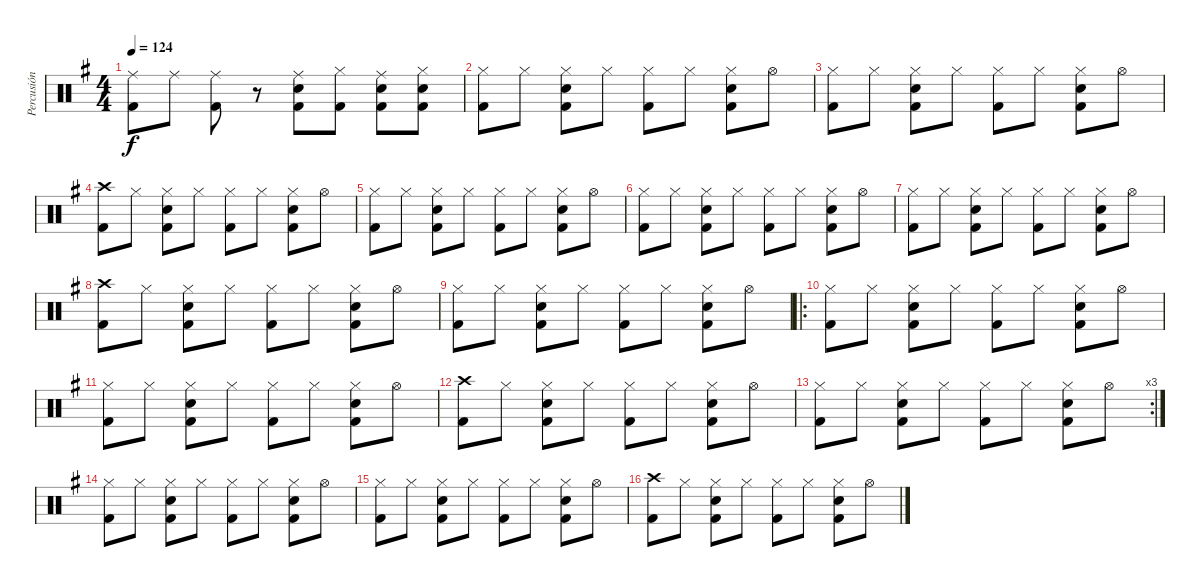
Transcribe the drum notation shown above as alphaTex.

\track ("Percusión" "Percusión") {instrument percussion}
\staff {score}
\articulation defaults
\ts (4 4)
\tempo 124
\clef neutral
\ks g
("Ride (middle)" "Kick (hit) 2").8{dy f} "Ride (middle)".8 ("Ride (middle)" "Kick (hit) 2").8 r.8 ("Ride (middle)" "Electric Snare (hit)" "Kick (hit) 2").8 ("Hi-Hat (closed)" "Kick (hit) 2").8 ("Ride (middle)" "Electric Snare (hit)" "Kick (hit) 2").8 ("Hi-Hat (closed)" "Electric Snare (hit)" "Kick (hit) 2").8 |
("Hi-Hat (closed)" "Kick (hit) 2").8 "Hi-Hat (closed)".8 ("Hi-Hat (closed)" "Electric Snare (hit)" "Kick (hit) 2").8 "Hi-Hat (closed)".8 ("Hi-Hat (closed)" "Kick (hit) 2").8 "Hi-Hat (closed)".8 ("Hi-Hat (closed)" "Electric Snare (hit)" "Kick (hit) 2").8 "Hi-Hat (open)".8 |
("Hi-Hat (closed)" "Kick (hit) 2").8 "Hi-Hat (closed)".8 ("Hi-Hat (closed)" "Electric Snare (hit)" "Kick (hit) 2").8 "Hi-Hat (closed)".8 ("Hi-Hat (closed)" "Kick (hit) 2").8 "Hi-Hat (closed)".8 ("Hi-Hat (closed)" "Electric Snare (hit)" "Kick (hit) 2").8 "Hi-Hat (open)".8 |
("Crash high (hit)" "Kick (hit) 2").8 "Hi-Hat (closed)".8 ("Hi-Hat (closed)" "Electric Snare (hit)" "Kick (hit) 2").8 "Hi-Hat (closed)".8 ("Hi-Hat (closed)" "Kick (hit) 2").8 "Hi-Hat (closed)".8 ("Hi-Hat (closed)" "Electric Snare (hit)" "Kick (hit) 2").8 "Hi-Hat (open)".8 |
("Hi-Hat (closed)" "Kick (hit) 2").8 "Hi-Hat (closed)".8 ("Hi-Hat (closed)" "Electric Snare (hit)" "Kick (hit) 2").8 "Hi-Hat (closed)".8 ("Hi-Hat (closed)" "Kick (hit) 2").8 "Hi-Hat (closed)".8 ("Hi-Hat (closed)" "Electric Snare (hit)" "Kick (hit) 2").8 "Hi-Hat (open)".8 |
("Hi-Hat (closed)" "Kick (hit) 2").8 "Hi-Hat (closed)".8 ("Hi-Hat (closed)" "Electric Snare (hit)" "Kick (hit) 2").8 "Hi-Hat (closed)".8 ("Hi-Hat (closed)" "Kick (hit) 2").8 "Hi-Hat (closed)".8 ("Hi-Hat (closed)" "Electric Snare (hit)" "Kick (hit) 2").8 "Hi-Hat (open)".8 |
("Hi-Hat (closed)" "Kick (hit) 2").8 "Hi-Hat (closed)".8 ("Hi-Hat (closed)" "Electric Snare (hit)" "Kick (hit) 2").8 "Hi-Hat (closed)".8 ("Hi-Hat (closed)" "Kick (hit) 2").8 "Hi-Hat (closed)".8 ("Hi-Hat (closed)" "Electric Snare (hit)" "Kick (hit) 2").8 "Hi-Hat (open)".8 |
("Crash high (hit)" "Kick (hit) 2").8 "Hi-Hat (closed)".8 ("Hi-Hat (closed)" "Electric Snare (hit)" "Kick (hit) 2").8 "Hi-Hat (closed)".8 ("Hi-Hat (closed)" "Kick (hit) 2").8 "Hi-Hat (closed)".8 ("Hi-Hat (closed)" "Electric Snare (hit)" "Kick (hit) 2").8 "Hi-Hat (open)".8 |
("Hi-Hat (closed)" "Kick (hit) 2").8 "Hi-Hat (closed)".8 ("Hi-Hat (closed)" "Electric Snare (hit)" "Kick (hit) 2").8 "Hi-Hat (closed)".8 ("Hi-Hat (closed)" "Kick (hit) 2").8 "Hi-Hat (closed)".8 ("Hi-Hat (closed)" "Electric Snare (hit)" "Kick (hit) 2").8 "Hi-Hat (open)".8 |
\ro
("Hi-Hat (closed)" "Kick (hit) 2").8 "Hi-Hat (closed)".8 ("Hi-Hat (closed)" "Electric Snare (hit)" "Kick (hit) 2").8 "Hi-Hat (closed)".8 ("Hi-Hat (closed)" "Kick (hit) 2").8 "Hi-Hat (closed)".8 ("Hi-Hat (closed)" "Electric Snare (hit)" "Kick (hit) 2").8 "Hi-Hat (open)".8 |
("Hi-Hat (closed)" "Kick (hit) 2").8 "Hi-Hat (closed)".8 ("Hi-Hat (closed)" "Electric Snare (hit)" "Kick (hit) 2").8 "Hi-Hat (closed)".8 ("Hi-Hat (closed)" "Kick (hit) 2").8 "Hi-Hat (closed)".8 ("Hi-Hat (closed)" "Electric Snare (hit)" "Kick (hit) 2").8 "Hi-Hat (open)".8 |
("Crash high (hit)" "Kick (hit) 2").8 "Hi-Hat (closed)".8 ("Hi-Hat (closed)" "Electric Snare (hit)" "Kick (hit) 2").8 "Hi-Hat (closed)".8 ("Hi-Hat (closed)" "Kick (hit) 2").8 "Hi-Hat (closed)".8 ("Hi-Hat (closed)" "Electric Snare (hit)" "Kick (hit) 2").8 "Hi-Hat (open)".8 |
\rc 3
("Hi-Hat (closed)" "Kick (hit) 2").8 "Hi-Hat (closed)".8 ("Hi-Hat (closed)" "Electric Snare (hit)" "Kick (hit) 2").8 "Hi-Hat (closed)".8 ("Hi-Hat (closed)" "Kick (hit) 2").8 "Hi-Hat (closed)".8 ("Hi-Hat (closed)" "Electric Snare (hit)" "Kick (hit) 2").8 "Hi-Hat (open)".8 |
("Hi-Hat (closed)" "Kick (hit) 2").8 "Hi-Hat (closed)".8 ("Hi-Hat (closed)" "Electric Snare (hit)" "Kick (hit) 2").8 "Hi-Hat (closed)".8 ("Hi-Hat (closed)" "Kick (hit) 2").8 "Hi-Hat (closed)".8 ("Hi-Hat (closed)" "Electric Snare (hit)" "Kick (hit) 2").8 "Hi-Hat (open)".8 |
("Hi-Hat (closed)" "Kick (hit) 2").8 "Hi-Hat (closed)".8 ("Hi-Hat (closed)" "Electric Snare (hit)" "Kick (hit) 2").8 "Hi-Hat (closed)".8 ("Hi-Hat (closed)" "Kick (hit) 2").8 "Hi-Hat (closed)".8 ("Hi-Hat (closed)" "Electric Snare (hit)" "Kick (hit) 2").8 "Hi-Hat (open)".8 |
("Crash high (hit)" "Kick (hit) 2").8 "Hi-Hat (closed)".8 ("Hi-Hat (closed)" "Electric Snare (hit)" "Kick (hit) 2").8 "Hi-Hat (closed)".8 ("Hi-Hat (closed)" "Kick (hit) 2").8 "Hi-Hat (closed)".8 ("Hi-Hat (closed)" "Electric Snare (hit)" "Kick (hit) 2").8 "Hi-Hat (open)".8
